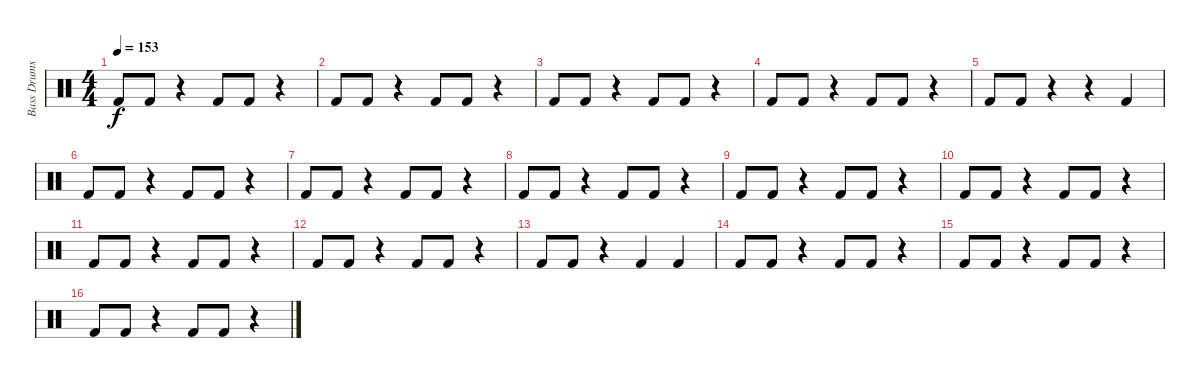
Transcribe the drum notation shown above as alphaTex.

\track ("Bass Drums" "Bass Drums") {instrument percussion}
\staff {score}
\articulation defaults
\ts (4 4)
\tempo 153
\clef neutral
\ks c "Kick (hit) 2".8{dy f} "Kick (hit) 2".8
r.4 "Kick (hit) 2".8 "Kick (hit) 2".8 r.4 |
"Kick (hit) 2".8 "Kick (hit) 2".8 r.4 "Kick (hit) 2".8 "Kick (hit) 2".8 r.4 |
"Kick (hit) 2".8 "Kick (hit) 2".8 r.4 "Kick (hit) 2".8 "Kick (hit) 2".8 r.4 |
"Kick (hit) 2".8 "Kick (hit) 2".8 r.4 "Kick (hit) 2".8 "Kick (hit) 2".8 r.4 |
"Kick (hit) 2".8 "Kick (hit) 2".8 r.4 r.4 "Kick (hit) 2".4 |
"Kick (hit) 2".8 "Kick (hit) 2".8 r.4 "Kick (hit) 2".8 "Kick (hit) 2".8 r.4 |
"Kick (hit) 2".8 "Kick (hit) 2".8 r.4 "Kick (hit) 2".8 "Kick (hit) 2".8 r.4 |
"Kick (hit) 2".8 "Kick (hit) 2".8 r.4 "Kick (hit) 2".8 "Kick (hit) 2".8 r.4 |
"Kick (hit) 2".8 "Kick (hit) 2".8 r.4 "Kick (hit) 2".8 "Kick (hit) 2".8 r.4 |
"Kick (hit) 2".8 "Kick (hit) 2".8 r.4 "Kick (hit) 2".8 "Kick (hit) 2".8 r.4 |
"Kick (hit) 2".8 "Kick (hit) 2".8 r.4 "Kick (hit) 2".8 "Kick (hit) 2".8 r.4 |
"Kick (hit) 2".8 "Kick (hit) 2".8 r.4 "Kick (hit) 2".8 "Kick (hit) 2".8 r.4 |
"Kick (hit) 2".8 "Kick (hit) 2".8 r.4 "Kick (hit) 2".4 "Kick (hit) 2".4 |
"Kick (hit) 2".8 "Kick (hit) 2".8 r.4 "Kick (hit) 2".8 "Kick (hit) 2".8 r.4 |
"Kick (hit) 2".8 "Kick (hit) 2".8 r.4 "Kick (hit) 2".8 "Kick (hit) 2".8 r.4 |
"Kick (hit) 2".8 "Kick (hit) 2".8 r.4 "Kick (hit) 2".8 "Kick (hit) 2".8 r.4
